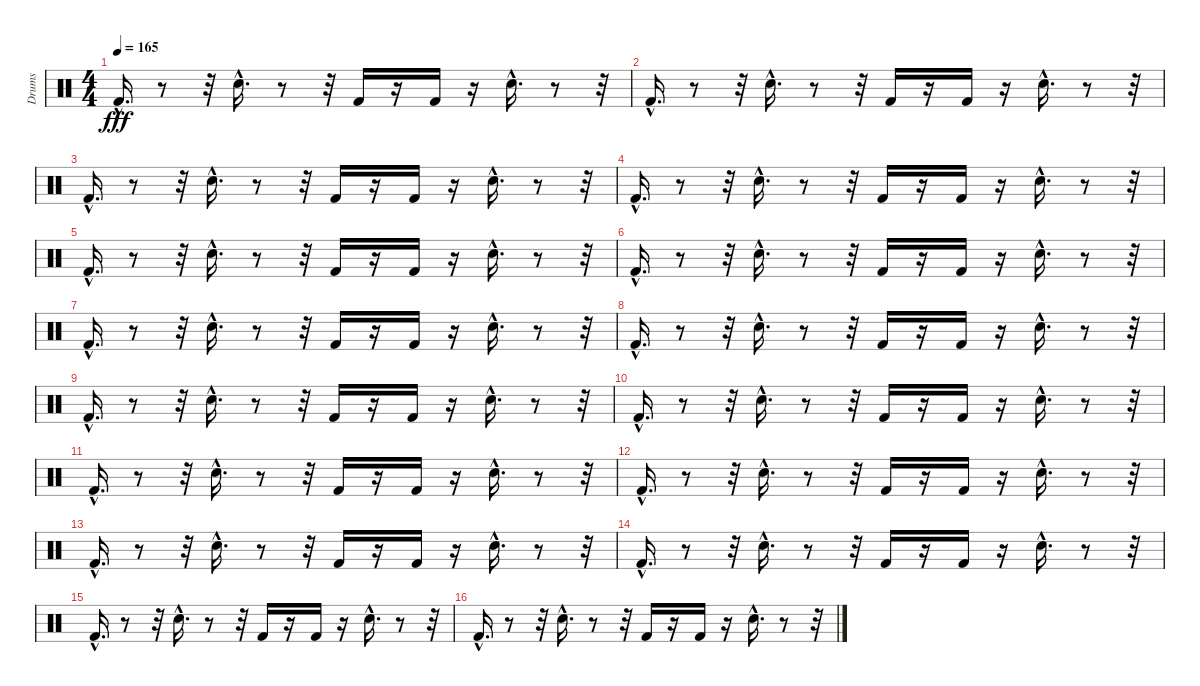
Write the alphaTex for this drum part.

\track ("Drums" "Drums") {instrument percussion}
\staff {score}
\articulation defaults
\ts (4 4)
\tempo 165
\clef neutral
\ks c "Kick (hit) 2"{hac}.16{d dy fff}
r.8 r.32 "Electric Snare (hit)"{hac}.16{d} r.8 r.32 "Kick (hit) 2".16 r.16 "Kick (hit) 2".16 r.16 "Electric Snare (hit)"{hac}.16{d} r.8 r.32 |
"Kick (hit) 2"{hac}.16{d} r.8 r.32 "Electric Snare (hit)"{hac}.16{d} r.8 r.32 "Kick (hit) 2".16 r.16 "Kick (hit) 2".16 r.16 "Electric Snare (hit)"{hac}.16{d} r.8 r.32 |
"Kick (hit) 2"{hac}.16{d} r.8 r.32 "Electric Snare (hit)"{hac}.16{d} r.8 r.32 "Kick (hit) 2".16 r.16 "Kick (hit) 2".16 r.16 "Electric Snare (hit)"{hac}.16{d} r.8 r.32 |
"Kick (hit) 2"{hac}.16{d} r.8 r.32 "Electric Snare (hit)"{hac}.16{d} r.8 r.32 "Kick (hit) 2".16 r.16 "Kick (hit) 2".16 r.16 "Electric Snare (hit)"{hac}.16{d} r.8 r.32 |
"Kick (hit) 2"{hac}.16{d} r.8 r.32 "Electric Snare (hit)"{hac}.16{d} r.8 r.32 "Kick (hit) 2".16 r.16 "Kick (hit) 2".16 r.16 "Electric Snare (hit)"{hac}.16{d} r.8 r.32 |
"Kick (hit) 2"{hac}.16{d} r.8 r.32 "Electric Snare (hit)"{hac}.16{d} r.8 r.32 "Kick (hit) 2".16 r.16 "Kick (hit) 2".16 r.16 "Electric Snare (hit)"{hac}.16{d} r.8 r.32 |
"Kick (hit) 2"{hac}.16{d} r.8 r.32 "Electric Snare (hit)"{hac}.16{d} r.8 r.32 "Kick (hit) 2".16 r.16 "Kick (hit) 2".16 r.16 "Electric Snare (hit)"{hac}.16{d} r.8 r.32 |
"Kick (hit) 2"{hac}.16{d} r.8 r.32 "Electric Snare (hit)"{hac}.16{d} r.8 r.32 "Kick (hit) 2".16 r.16 "Kick (hit) 2".16 r.16 "Electric Snare (hit)"{hac}.16{d} r.8 r.32 |
"Kick (hit) 2"{hac}.16{d} r.8 r.32 "Electric Snare (hit)"{hac}.16{d} r.8 r.32 "Kick (hit) 2".16 r.16 "Kick (hit) 2".16 r.16 "Electric Snare (hit)"{hac}.16{d} r.8 r.32 |
"Kick (hit) 2"{hac}.16{d} r.8 r.32 "Electric Snare (hit)"{hac}.16{d} r.8 r.32 "Kick (hit) 2".16 r.16 "Kick (hit) 2".16 r.16 "Electric Snare (hit)"{hac}.16{d} r.8 r.32 |
"Kick (hit) 2"{hac}.16{d} r.8 r.32 "Electric Snare (hit)"{hac}.16{d} r.8 r.32 "Kick (hit) 2".16 r.16 "Kick (hit) 2".16 r.16 "Electric Snare (hit)"{hac}.16{d} r.8 r.32 |
"Kick (hit) 2"{hac}.16{d} r.8 r.32 "Electric Snare (hit)"{hac}.16{d} r.8 r.32 "Kick (hit) 2".16 r.16 "Kick (hit) 2".16 r.16 "Electric Snare (hit)"{hac}.16{d} r.8 r.32 |
"Kick (hit) 2"{hac}.16{d} r.8 r.32 "Electric Snare (hit)"{hac}.16{d} r.8 r.32 "Kick (hit) 2".16 r.16 "Kick (hit) 2".16 r.16 "Electric Snare (hit)"{hac}.16{d} r.8 r.32 |
"Kick (hit) 2"{hac}.16{d} r.8 r.32 "Electric Snare (hit)"{hac}.16{d} r.8 r.32 "Kick (hit) 2".16 r.16 "Kick (hit) 2".16 r.16 "Electric Snare (hit)"{hac}.16{d} r.8 r.32 |
"Kick (hit) 2"{hac}.16{d} r.8 r.32 "Electric Snare (hit)"{hac}.16{d} r.8 r.32 "Kick (hit) 2".16 r.16 "Kick (hit) 2".16 r.16 "Electric Snare (hit)"{hac}.16{d} r.8 r.32 |
"Kick (hit) 2"{hac}.16{d} r.8 r.32 "Electric Snare (hit)"{hac}.16{d} r.8 r.32 "Kick (hit) 2".16 r.16 "Kick (hit) 2".16 r.16 "Electric Snare (hit)"{hac}.16{d} r.8 r.32
